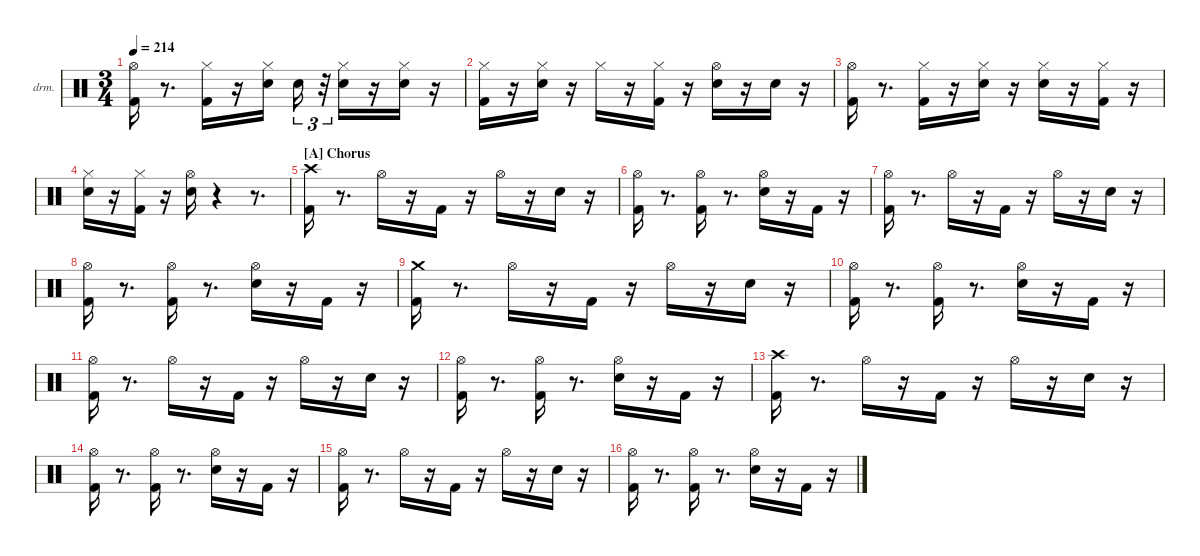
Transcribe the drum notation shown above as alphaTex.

\hideDynamics
\bracketExtendMode nobrackets
\firstSystemTrackNameOrientation horizontal
\otherSystemsTrackNameOrientation horizontal
\track ("EZdrummer 3" "drm.") {instrument percussion}
\staff {score}
\articulation defaults
\ts (3 4)
\tempo 214
\clef neutral
\ks aminor
("Kick (hit) 2" "Hi-Hat (open)"{acc #}).16{dy ff} r.8{d} ("Kick (hit) 2" "Hi-Hat (closed)"{acc #}).16{dy mf} r.16 ("Snare (hit) 2" "Hi-Hat (closed)"{acc #}).16{dy f} "Snare (hit) 2".16{tu (3 2) dy p} r.32{tu (3 2)} ("Snare (hit) 2" "Hi-Hat (closed)"{acc #}).16{dy ppp} r.16 ("Snare (hit) 2" "Hi-Hat (closed)"{acc #}).16{dy pp} r.16 |
("Kick (hit) 2" "Hi-Hat (closed)"{acc #}).16{dy mf} r.16 ("Snare (hit) 2" "Hi-Hat (closed)"{acc #}).16{dy f} r.16 "Hi-Hat (closed)"{acc #}.16 r.16 ("Kick (hit) 2" "Hi-Hat (closed)"{acc #}).16 r.16 ("Snare (hit) 2" "Hi-Hat (open)"{acc #}).16 r.16 "Snare (hit) 2".16{dy pp} r.16 |
("Kick (hit) 2" "Hi-Hat (open)"{acc #}).16{dy ff} r.8{d} ("Kick (hit) 2" "Hi-Hat (closed)"{acc #}).16{dy f} r.16 ("Snare (hit) 2" "Hi-Hat (closed)"{acc #}).16 r.16 ("Snare (hit) 2" "Hi-Hat (closed)"{acc #}).16{dy ppp} r.16 ("Kick (hit) 2" "Hi-Hat (closed)"{acc #}).16{dy mf} r.16 |
("Snare (hit) 2" "Hi-Hat (closed)"{acc #}).16 r.16 ("Kick (hit) 2" "Hi-Hat (closed)"{acc #}).16 r.16 ("Snare (hit) 2" "Hi-Hat (open)"{acc #}).16{dy ff} r.4 r.8{d} |
\section ("A" "Chorus")
("Kick (hit) 2" "Crash high (hit)"{acc #}).16{dy fff} r.8{d} "Hi-Hat (open)"{acc #}.16{dy mf} r.16 "Kick (hit) 2".16{dy ff} r.16 "Hi-Hat (open)"{acc #}.16{dy f} r.16 "Snare (hit) 2".16{dy ff} r.16 |
("Kick (hit) 2" "Hi-Hat (open)"{acc #}).16 r.8{d} ("Kick (hit) 2" "Hi-Hat (open)"{acc #}).16{dy f} r.8{d} ("Snare (hit) 2" "Hi-Hat (open)"{acc #}).16 r.16 "Kick (hit) 2".16{dy mp} r.16 |
("Kick (hit) 2" "Hi-Hat (open)"{acc #}).16{dy fff} r.8{d} "Hi-Hat (open)"{acc #}.16{dy mf} r.16 "Kick (hit) 2".16{dy ff} r.16 "Hi-Hat (open)"{acc #}.16{dy f} r.16 "Snare (hit) 2".16{dy ff} r.16 |
("Kick (hit) 2" "Hi-Hat (open)"{acc #}).16{dy fff} r.8{d} ("Kick (hit) 2" "Hi-Hat (open)"{acc #}).16{dy ff} r.8{d} ("Snare (hit) 2" "Hi-Hat (open)"{acc #}).16{dy f} r.16 "Kick (hit) 2".16{dy mp} r.16 |
("Kick (hit) 2" "Crash medium (hit)").16{dy fff} r.8{d} "Hi-Hat (open)"{acc #}.16{dy mf} r.16 "Kick (hit) 2".16{dy ff} r.16 "Hi-Hat (open)"{acc #}.16{dy f} r.16 "Snare (hit) 2".16{dy ff} r.16 |
("Kick (hit) 2" "Hi-Hat (open)"{acc #}).16{dy fff} r.8{d} ("Kick (hit) 2" "Hi-Hat (open)"{acc #}).16{dy f} r.8{d} ("Snare (hit) 2" "Hi-Hat (open)"{acc #}).16 r.16 "Kick (hit) 2".16{dy mp} r.16 |
("Kick (hit) 2" "Hi-Hat (open)"{acc #}).16{dy fff} r.8{d} "Hi-Hat (open)"{acc #}.16{dy mf} r.16 "Kick (hit) 2".16{dy ff} r.16 "Hi-Hat (open)"{acc #}.16{dy f} r.16 "Snare (hit) 2".16{dy ff} r.16 |
("Kick (hit) 2" "Hi-Hat (open)"{acc #}).16{dy fff} r.8{d} ("Kick (hit) 2" "Hi-Hat (open)"{acc #}).16{dy ff} r.8{d} ("Snare (hit) 2" "Hi-Hat (open)"{acc #}).16{dy f} r.16 "Kick (hit) 2".16{dy mp} r.16 |
("Kick (hit) 2" "Crash high (hit)"{acc #}).16{dy fff} r.8{d} "Hi-Hat (open)"{acc #}.16{dy mf} r.16 "Kick (hit) 2".16{dy ff} r.16 "Hi-Hat (open)"{acc #}.16{dy f} r.16 "Snare (hit) 2".16{dy ff} r.16 |
("Kick (hit) 2" "Hi-Hat (open)"{acc #}).16 r.8{d} ("Kick (hit) 2" "Hi-Hat (open)"{acc #}).16{dy f} r.8{d} ("Snare (hit) 2" "Hi-Hat (open)"{acc #}).16 r.16 "Kick (hit) 2".16{dy mp} r.16 |
("Kick (hit) 2" "Hi-Hat (open)"{acc #}).16{dy fff} r.8{d} "Hi-Hat (open)"{acc #}.16{dy mf} r.16 "Kick (hit) 2".16{dy ff} r.16 "Hi-Hat (open)"{acc #}.16{dy f} r.16 "Snare (hit) 2".16{dy ff} r.16 |
("Kick (hit) 2" "Hi-Hat (open)"{acc #}).16{dy fff} r.8{d} ("Kick (hit) 2" "Hi-Hat (open)"{acc #}).16{dy ff} r.8{d} ("Snare (hit) 2" "Hi-Hat (open)"{acc #}).16{dy f} r.16 "Kick (hit) 2".16{dy mp} r.16
